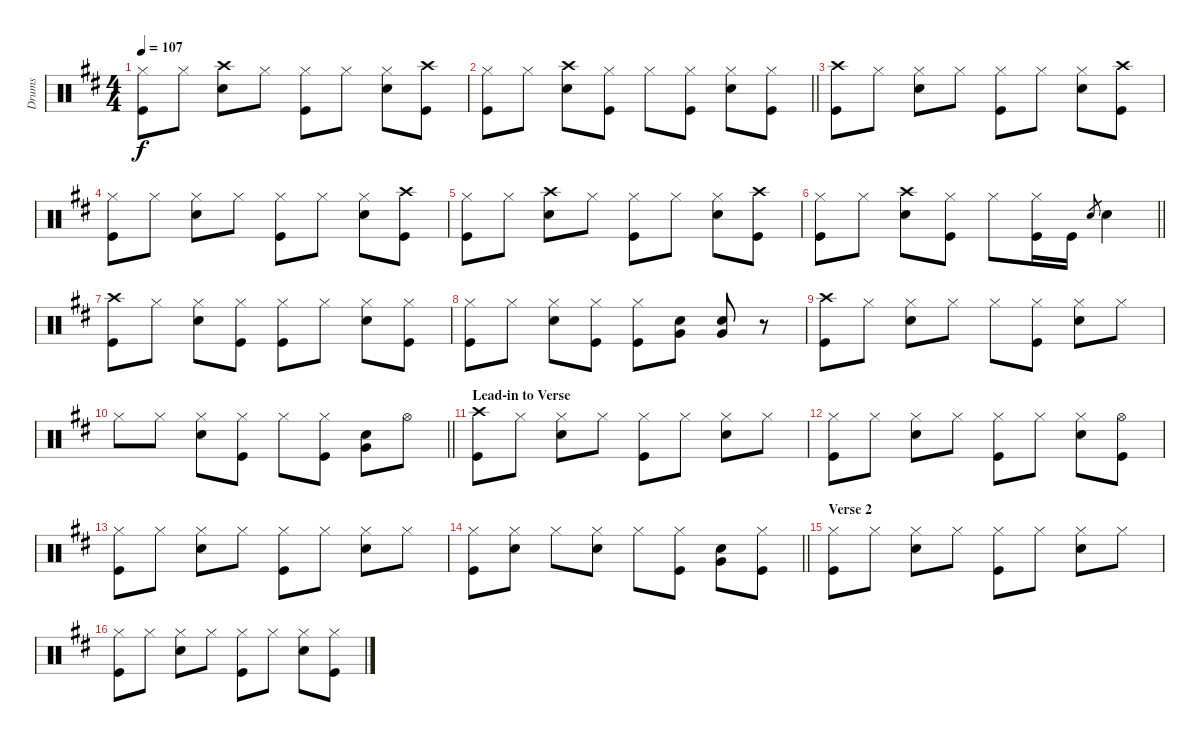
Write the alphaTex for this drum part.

\track ("Drums" "Drums") {instrument percussion}
\staff {score}
\articulation defaults
\ts (4 4)
\tempo 107
\clef neutral
\ks d
("Hi-Hat (closed)" "Kick (hit)").8{dy f} "Hi-Hat (closed)".8 ("Crash high (hit)" "Snare (hit) 2").8 "Hi-Hat (closed)".8 ("Hi-Hat (closed)" "Kick (hit)").8 "Hi-Hat (closed)".8 ("Hi-Hat (closed)" "Snare (hit) 2").8 ("Crash high (hit)" "Kick (hit)").8 |
\barLineRight lightlight
("Hi-Hat (closed)" "Kick (hit)").8 "Hi-Hat (closed)".8 ("Crash high (hit)" "Snare (hit) 2").8 ("Hi-Hat (closed)" "Kick (hit)").8 "Hi-Hat (closed)".8 ("Hi-Hat (closed)" "Kick (hit)").8 ("Hi-Hat (closed)" "Snare (hit) 2").8 ("Hi-Hat (closed)" "Kick (hit)").8 |
("Crash high (hit)" "Kick (hit)").8 "Hi-Hat (closed)".8 ("Hi-Hat (closed)" "Snare (hit) 2").8 "Hi-Hat (closed)".8 ("Hi-Hat (closed)" "Kick (hit)").8 "Hi-Hat (closed)".8 ("Hi-Hat (closed)" "Snare (hit) 2").8 ("Crash high (hit)" "Kick (hit)").8 |
("Hi-Hat (closed)" "Kick (hit)").8 "Hi-Hat (closed)".8 ("Hi-Hat (closed)" "Snare (hit) 2").8 "Hi-Hat (closed)".8 ("Hi-Hat (closed)" "Kick (hit)").8 "Hi-Hat (closed)".8 ("Hi-Hat (closed)" "Snare (hit) 2").8 ("Crash high (hit)" "Kick (hit)").8 |
("Hi-Hat (closed)" "Kick (hit)").8 "Hi-Hat (closed)".8 ("Crash high (hit)" "Snare (hit) 2").8 "Hi-Hat (closed)".8 ("Hi-Hat (closed)" "Kick (hit)").8 "Hi-Hat (closed)".8 ("Hi-Hat (closed)" "Snare (hit) 2").8 ("Crash high (hit)" "Kick (hit)").8 |
\barLineRight lightlight
("Hi-Hat (closed)" "Kick (hit)").8 "Hi-Hat (closed)".8 ("Crash high (hit)" "Snare (hit) 2").8 ("Hi-Hat (closed)" "Kick (hit)").8 "Hi-Hat (closed)".8 ("Hi-Hat (closed)" "Kick (hit)").16 "Kick (hit)".16 "Snare (hit) 2".8{gr} "Snare (hit) 2".4 |
("Crash high (hit)" "Kick (hit)").8 "Hi-Hat (closed)".8 ("Hi-Hat (closed)" "Snare (hit) 2").8 ("Hi-Hat (closed)" "Kick (hit)").8 ("Hi-Hat (closed)" "Kick (hit)").8 "Hi-Hat (closed)".8 ("Hi-Hat (closed)" "Snare (hit) 2").8 ("Hi-Hat (closed)" "Kick (hit)").8 |
("Hi-Hat (closed)" "Kick (hit)").8 "Hi-Hat (closed)".8 ("Hi-Hat (closed)" "Snare (hit) 2").8 ("Hi-Hat (closed)" "Kick (hit)").8 ("Hi-Hat (closed)" "Kick (hit)").8 ("Snare (hit) 2" "Very Low Tom (hit)").8 ("Snare (hit) 2" "Very Low Tom (hit)").8 r.8 |
("Crash high (hit)" "Kick (hit)").8 "Hi-Hat (closed)".8 ("Hi-Hat (closed)" "Snare (hit) 2").8 "Hi-Hat (closed)".8 "Hi-Hat (closed)".8 ("Hi-Hat (closed)" "Kick (hit)").8 ("Hi-Hat (closed)" "Snare (hit) 2").8 "Hi-Hat (closed)".8 |
\barLineRight lightlight "Hi-Hat (closed)".8 "Hi-Hat (closed)".8
("Hi-Hat (closed)" "Snare (hit) 2").8 ("Hi-Hat (closed)" "Kick (hit)").8 "Hi-Hat (closed)".8 ("Hi-Hat (closed)" "Kick (hit)").8 ("Snare (hit) 2" "Very Low Tom (hit)").8 "Hi-Hat (open)".8 |
\section ("" "Lead-in to Verse")
("Crash high (hit)" "Kick (hit)").8 "Hi-Hat (closed)".8 ("Hi-Hat (closed)" "Snare (hit) 2").8 "Hi-Hat (closed)".8 ("Hi-Hat (closed)" "Kick (hit)").8 "Hi-Hat (closed)".8 ("Hi-Hat (closed)" "Snare (hit) 2").8 "Hi-Hat (closed)".8 |
("Hi-Hat (closed)" "Kick (hit)").8 "Hi-Hat (closed)".8 ("Hi-Hat (closed)" "Snare (hit) 2").8 "Hi-Hat (closed)".8 ("Hi-Hat (closed)" "Kick (hit)").8 "Hi-Hat (closed)".8 ("Hi-Hat (closed)" "Snare (hit) 2").8 ("Hi-Hat (open)" "Kick (hit)").8 |
("Hi-Hat (closed)" "Kick (hit)").8 "Hi-Hat (closed)".8 ("Hi-Hat (closed)" "Snare (hit) 2").8 "Hi-Hat (closed)".8 ("Hi-Hat (closed)" "Kick (hit)").8 "Hi-Hat (closed)".8 ("Hi-Hat (closed)" "Snare (hit) 2").8 "Hi-Hat (closed)".8 |
\barLineRight lightlight
("Hi-Hat (closed)" "Kick (hit)").8 ("Hi-Hat (closed)" "Snare (hit) 2").8 "Hi-Hat (closed)".8 ("Hi-Hat (closed)" "Snare (hit) 2").8 "Hi-Hat (closed)".8 ("Hi-Hat (closed)" "Kick (hit)").8 ("Snare (hit) 2" "Very Low Tom (hit)").8 ("Hi-Hat (closed)" "Kick (hit)").8 |
\section ("" "Verse 2")
("Hi-Hat (closed)" "Kick (hit)").8 "Hi-Hat (closed)".8 ("Hi-Hat (closed)" "Snare (hit) 2").8 "Hi-Hat (closed)".8 ("Hi-Hat (closed)" "Kick (hit)").8 "Hi-Hat (closed)".8 ("Hi-Hat (closed)" "Snare (hit) 2").8 "Hi-Hat (closed)".8 |
("Hi-Hat (closed)" "Kick (hit)").8 "Hi-Hat (closed)".8 ("Hi-Hat (closed)" "Snare (hit) 2").8 "Hi-Hat (closed)".8 ("Hi-Hat (closed)" "Kick (hit)").8 "Hi-Hat (closed)".8 ("Hi-Hat (closed)" "Snare (hit) 2").8 ("Hi-Hat (closed)" "Kick (hit)").8
